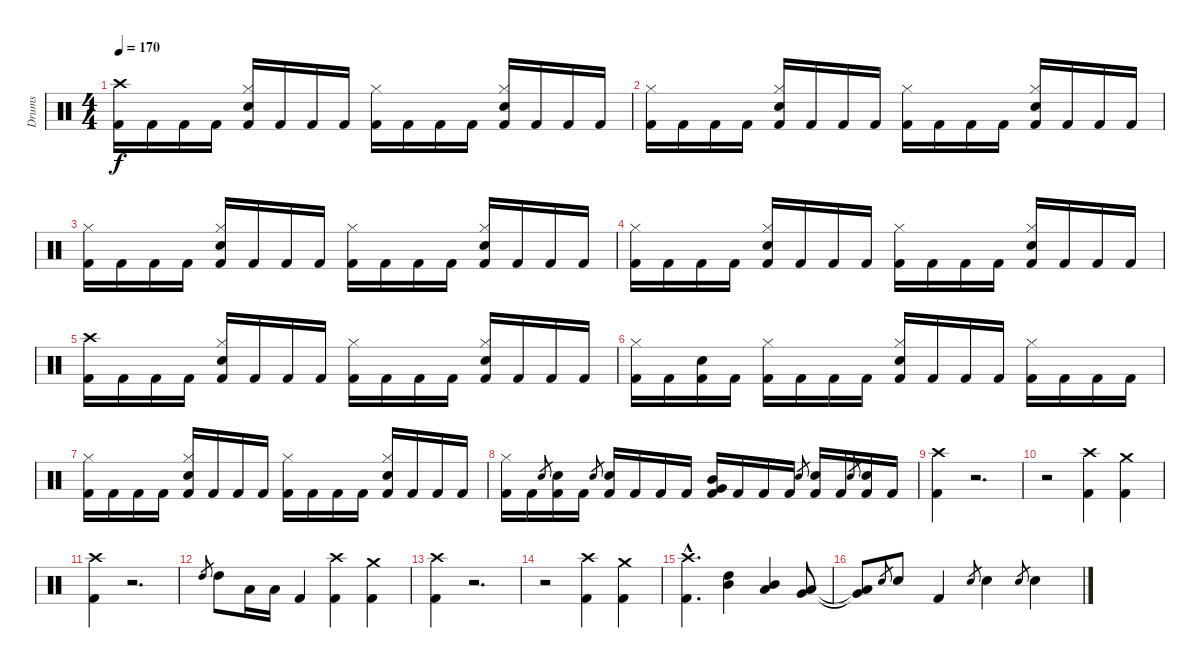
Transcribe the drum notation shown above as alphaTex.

\track ("Drums" "Drums") {instrument percussion}
\staff {score}
\articulation defaults
\ts (4 4)
\tempo 170
\clef neutral
\ks c
("Crash high (hit)" "Kick (hit) 2").16{dy f} "Kick (hit) 2".16 "Kick (hit) 2".16 "Kick (hit) 2".16 ("Hi-Hat (closed)" "Snare (hit) 2" "Kick (hit) 2").16 "Kick (hit) 2".16 "Kick (hit) 2".16 "Kick (hit) 2".16 ("Hi-Hat (closed)" "Kick (hit) 2").16 "Kick (hit) 2".16 "Kick (hit) 2".16 "Kick (hit) 2".16 ("Hi-Hat (closed)" "Snare (hit) 2" "Kick (hit) 2").16 "Kick (hit) 2".16 "Kick (hit) 2".16 "Kick (hit) 2".16 |
("Hi-Hat (closed)" "Kick (hit) 2").16 "Kick (hit) 2".16 "Kick (hit) 2".16 "Kick (hit) 2".16 ("Hi-Hat (closed)" "Snare (hit) 2" "Kick (hit) 2").16 "Kick (hit) 2".16 "Kick (hit) 2".16 "Kick (hit) 2".16 ("Hi-Hat (closed)" "Kick (hit) 2").16 "Kick (hit) 2".16 "Kick (hit) 2".16 "Kick (hit) 2".16 ("Hi-Hat (closed)" "Snare (hit) 2" "Kick (hit) 2").16 "Kick (hit) 2".16 "Kick (hit) 2".16 "Kick (hit) 2".16 |
("Hi-Hat (closed)" "Kick (hit) 2").16 "Kick (hit) 2".16 "Kick (hit) 2".16 "Kick (hit) 2".16 ("Hi-Hat (closed)" "Snare (hit) 2" "Kick (hit) 2").16 "Kick (hit) 2".16 "Kick (hit) 2".16 "Kick (hit) 2".16 ("Hi-Hat (closed)" "Kick (hit) 2").16 "Kick (hit) 2".16 "Kick (hit) 2".16 "Kick (hit) 2".16 ("Hi-Hat (closed)" "Snare (hit) 2" "Kick (hit) 2").16 "Kick (hit) 2".16 "Kick (hit) 2".16 "Kick (hit) 2".16 |
("Hi-Hat (closed)" "Kick (hit) 2").16 "Kick (hit) 2".16 "Kick (hit) 2".16 "Kick (hit) 2".16 ("Hi-Hat (closed)" "Snare (hit) 2" "Kick (hit) 2").16 "Kick (hit) 2".16 "Kick (hit) 2".16 "Kick (hit) 2".16 ("Hi-Hat (closed)" "Kick (hit) 2").16 "Kick (hit) 2".16 "Kick (hit) 2".16 "Kick (hit) 2".16 ("Hi-Hat (closed)" "Snare (hit) 2" "Kick (hit) 2").16 "Kick (hit) 2".16 "Kick (hit) 2".16 "Kick (hit) 2".16 |
("Crash high (hit)" "Kick (hit) 2").16 "Kick (hit) 2".16 "Kick (hit) 2".16 "Kick (hit) 2".16 ("Hi-Hat (closed)" "Snare (hit) 2" "Kick (hit) 2").16 "Kick (hit) 2".16 "Kick (hit) 2".16 "Kick (hit) 2".16 ("Hi-Hat (closed)" "Kick (hit) 2").16 "Kick (hit) 2".16 "Kick (hit) 2".16 "Kick (hit) 2".16 ("Hi-Hat (closed)" "Snare (hit) 2" "Kick (hit) 2").16 "Kick (hit) 2".16 "Kick (hit) 2".16 "Kick (hit) 2".16 |
("Hi-Hat (closed)" "Kick (hit) 2").16 "Kick (hit) 2".16 ("Snare (hit) 2" "Kick (hit) 2").16 "Kick (hit) 2".16 ("Hi-Hat (closed)" "Kick (hit) 2").16 "Kick (hit) 2".16 "Kick (hit) 2".16 "Kick (hit) 2".16 ("Hi-Hat (closed)" "Snare (hit) 2" "Kick (hit) 2").16 "Kick (hit) 2".16 "Kick (hit) 2".16 "Kick (hit) 2".16 ("Hi-Hat (closed)" "Kick (hit) 2").16 "Kick (hit) 2".16 "Kick (hit) 2".16 "Kick (hit) 2".16 |
("Hi-Hat (closed)" "Kick (hit) 2").16 "Kick (hit) 2".16 "Kick (hit) 2".16 "Kick (hit) 2".16 ("Hi-Hat (closed)" "Snare (hit) 2" "Kick (hit) 2").16 "Kick (hit) 2".16 "Kick (hit) 2".16 "Kick (hit) 2".16 ("Hi-Hat (closed)" "Kick (hit) 2").16 "Kick (hit) 2".16 "Kick (hit) 2".16 "Kick (hit) 2".16 ("Hi-Hat (closed)" "Snare (hit) 2" "Kick (hit) 2").16 "Kick (hit) 2".16 "Kick (hit) 2".16 "Kick (hit) 2".16 |
("Hi-Hat (closed)" "Kick (hit) 2").16 "Kick (hit) 2".16 "Snare (hit) 2".8{gr} ("Snare (hit) 2" "Kick (hit) 2").16 "Kick (hit) 2".16 "Snare (hit) 2".8{gr} ("Snare (hit) 2" "Kick (hit) 2").16 "Kick (hit) 2".16 "Kick (hit) 2".16 "Kick (hit) 2".16 ("Mid Tom (hit)" "Very Low Tom (hit)" "Kick (hit) 2").16 "Kick (hit) 2".16 "Kick (hit) 2".16 "Kick (hit) 2".16 "Snare (hit) 2".8{gr} ("Snare (hit) 2" "Kick (hit) 2").16 "Kick (hit) 2".16 "Snare (hit) 2".8{gr} ("Snare (hit) 2" "Kick (hit) 2").16 "Kick (hit) 2".16 |
("Crash high (hit)" "Kick (hit) 2").4 r.2{d} |
r.2 ("Crash high (hit)" "Kick (hit) 2").4 ("Crash medium (hit)" "Kick (hit) 2").4 |
("Crash high (hit)" "Kick (hit) 2").4 r.2{d} |
"High Tom (hit)".8{gr} "High Tom (hit)".8 "Low Tom (hit)".16 "Low Tom (hit)".16 "Kick (hit) 2".4 ("Crash high (hit)" "Kick (hit) 2").4 ("Crash medium (hit)" "Kick (hit) 2").4 |
("Crash high (hit)" "Kick (hit) 2").4 r.2{d} |
r.2 ("Crash high (hit)" "Kick (hit) 2").4 ("Crash medium (hit)" "Kick (hit) 2").4 |
("Crash high (hit)"{hac} "Kick (hit) 2"{hac}).4{d} ("High Tom (hit)" "Mid Tom (hit)").4 ("Mid Tom (hit)" "Low Tom (hit)").4 ("Low Tom (hit)" "Very Low Tom (hit)").8 |
("Low Tom (hit)"{t} "Very Low Tom (hit)"{t}).8 "Snare (hit) 2".8{gr} "Snare (hit) 2".8 "Kick (hit) 2".4 "Snare (hit) 2".8{gr} "Snare (hit) 2".4 "Snare (hit) 2".8{gr} "Snare (hit) 2".4
